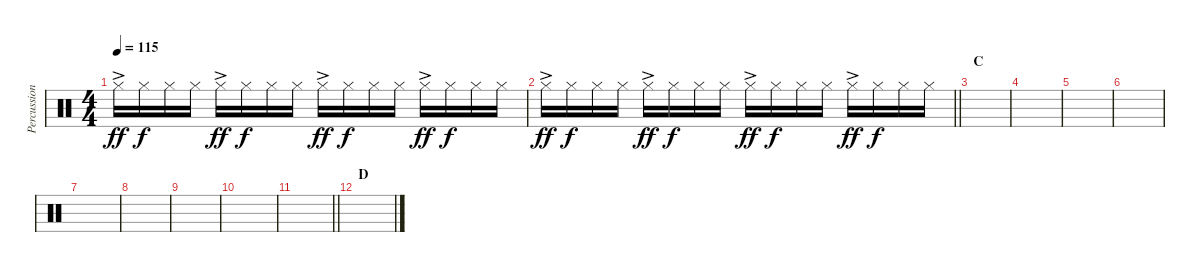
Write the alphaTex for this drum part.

\track ("Percussion" "Percussion") {instrument percussion}
\staff {score}
\articulation defaults
\ts (4 4)
\tempo 115
\clef neutral
\ks c "Hi-Hat (closed)"{ac}.16{dy ff} "Hi-Hat (closed)".16{dy f} "Hi-Hat (closed)".16 "Hi-Hat (closed)".16 "Hi-Hat (closed)"{ac}.16{dy ff} "Hi-Hat (closed)".16{dy f} "Hi-Hat (closed)".16 "Hi-Hat (closed)".16 "Hi-Hat (closed)"{ac}.16{dy ff} "Hi-Hat (closed)".16{dy f} "Hi-Hat (closed)".16 "Hi-Hat (closed)".16 "Hi-Hat (closed)"{ac}.16{dy ff} "Hi-Hat (closed)".16{dy f} "Hi-Hat (closed)".16 "Hi-Hat (closed)".16
|
\barLineRight lightlight "Hi-Hat (closed)"{ac}.16{dy ff} "Hi-Hat (closed)".16{dy f} "Hi-Hat (closed)".16 "Hi-Hat (closed)".16 "Hi-Hat (closed)"{ac}.16{dy ff} "Hi-Hat (closed)".16{dy f} "Hi-Hat (closed)".16 "Hi-Hat (closed)".16 "Hi-Hat (closed)"{ac}.16{dy ff} "Hi-Hat (closed)".16{dy f} "Hi-Hat (closed)".16 "Hi-Hat (closed)".16 "Hi-Hat (closed)"{ac}.16{dy ff} "Hi-Hat (closed)".16{dy f} "Hi-Hat (closed)".16 "Hi-Hat (closed)".16
|
\section ("" "C")
|
|
|
|
|
|
|
|
\barLineRight lightlight
|
\section ("" "D")
